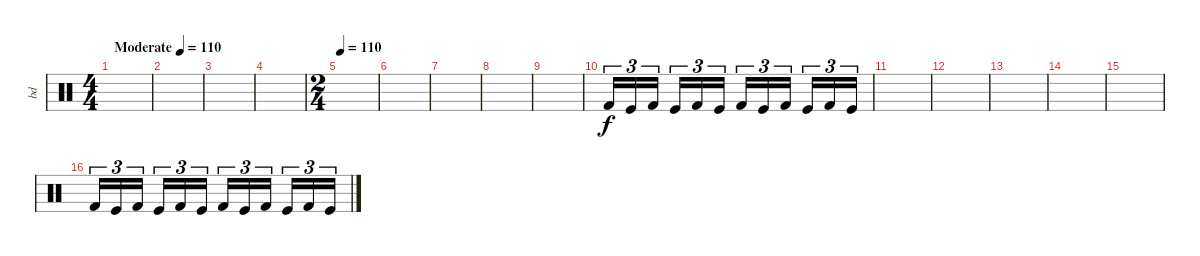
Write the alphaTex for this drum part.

\track ("bd" "bd") {instrument percussion}
\staff
\articulation defaults
\ts (4 4)
\tempo (110 "Moderate")
\tempo 95
\tempo (110 "Moderate")
\clef neutral
\ks c
|
|
|
|
\ts (2 4)
\tempo 110
|
|
|
|
|
"Kick (hit) 2".16{tu (3 2)} "Kick (hit)".16{tu (3 2)} "Kick (hit) 2".16{tu (3 2) beam splitsecondary} "Kick (hit)".16{tu (3 2)} "Kick (hit) 2".16{tu (3 2)} "Kick (hit)".16{tu (3 2)} "Kick (hit) 2".16{tu (3 2)} "Kick (hit)".16{tu (3 2)} "Kick (hit) 2".16{tu (3 2) beam splitsecondary} "Kick (hit)".16{tu (3 2)} "Kick (hit) 2".16{tu (3 2)} "Kick (hit)".16{tu (3 2)} |
|
|
|
|
|
"Kick (hit) 2".16{tu (3 2)} "Kick (hit)".16{tu (3 2)} "Kick (hit) 2".16{tu (3 2) beam splitsecondary} "Kick (hit)".16{tu (3 2)} "Kick (hit) 2".16{tu (3 2)} "Kick (hit)".16{tu (3 2)} "Kick (hit) 2".16{tu (3 2)} "Kick (hit)".16{tu (3 2)} "Kick (hit) 2".16{tu (3 2) beam splitsecondary} "Kick (hit)".16{tu (3 2)} "Kick (hit) 2".16{tu (3 2)} "Kick (hit)".16{tu (3 2)}
